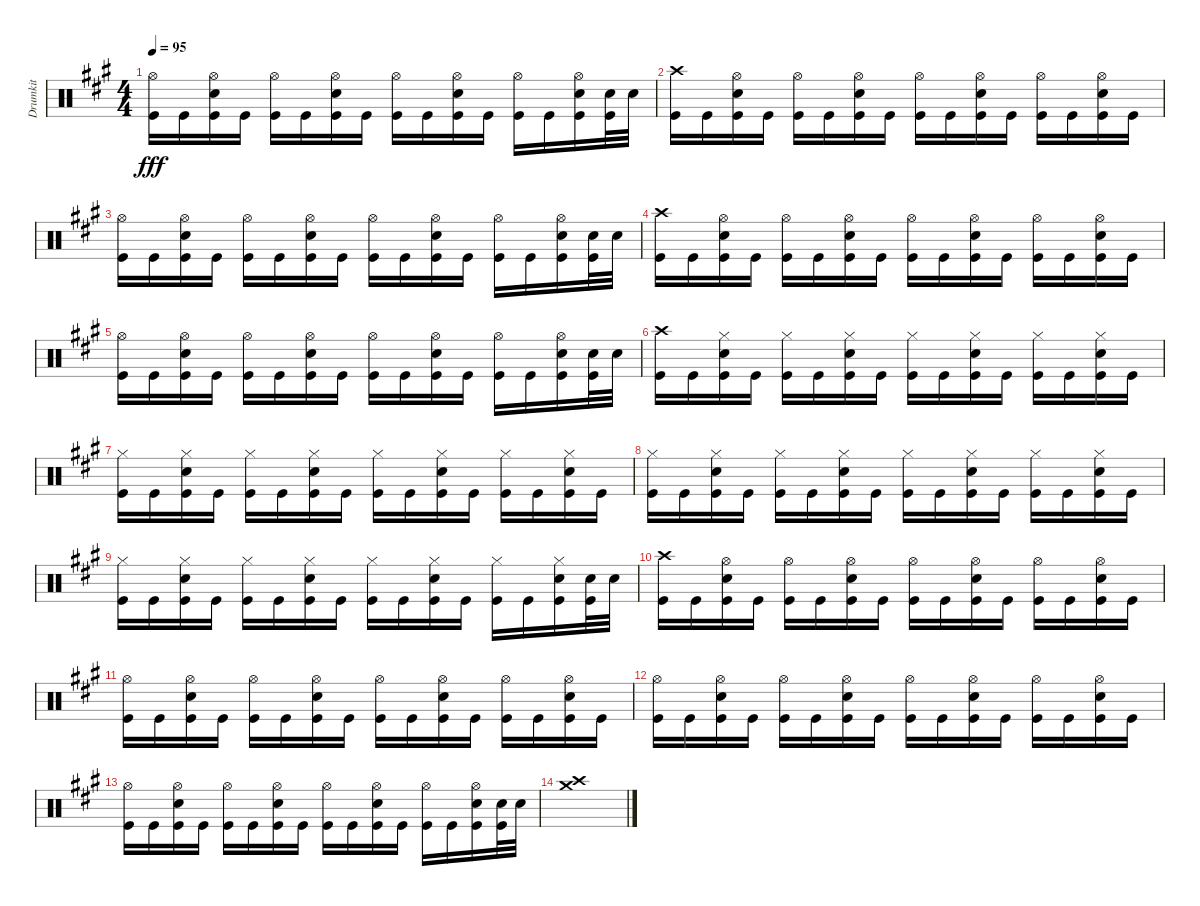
\track ("Drumkit" "Drumkit") {instrument percussion}
\staff {score}
\articulation defaults
\ts (4 4)
\tempo 95
\clef neutral
\ks a
("Hi-Hat (open)" "Kick (hit)").16{dy fff} "Kick (hit)".16 ("Hi-Hat (open)" "Snare (hit) 2" "Kick (hit)").16 "Kick (hit)".16 ("Hi-Hat (open)" "Kick (hit)").16 "Kick (hit)".16 ("Hi-Hat (open)" "Snare (hit) 2" "Kick (hit)").16 "Kick (hit)".16 ("Hi-Hat (open)" "Kick (hit)").16 "Kick (hit)".16 ("Hi-Hat (open)" "Snare (hit) 2" "Kick (hit)").16 "Kick (hit)".16 ("Hi-Hat (open)" "Kick (hit)").16 "Kick (hit)".16 ("Hi-Hat (open)" "Snare (hit) 2" "Kick (hit)").16 ("Snare (hit) 2" "Kick (hit)").32 "Snare (hit) 2".32 |
("Crash high (hit)" "Kick (hit)").16 "Kick (hit)".16 ("Hi-Hat (open)" "Snare (hit) 2" "Kick (hit)").16 "Kick (hit)".16 ("Hi-Hat (open)" "Kick (hit)").16 "Kick (hit)".16 ("Hi-Hat (open)" "Snare (hit) 2" "Kick (hit)").16 "Kick (hit)".16 ("Hi-Hat (open)" "Kick (hit)").16 "Kick (hit)".16 ("Hi-Hat (open)" "Snare (hit) 2" "Kick (hit)").16 "Kick (hit)".16 ("Hi-Hat (open)" "Kick (hit)").16 "Kick (hit)".16 ("Hi-Hat (open)" "Snare (hit) 2" "Kick (hit)").16 "Kick (hit)".16 |
("Hi-Hat (open)" "Kick (hit)").16 "Kick (hit)".16 ("Hi-Hat (open)" "Snare (hit) 2" "Kick (hit)").16 "Kick (hit)".16 ("Hi-Hat (open)" "Kick (hit)").16 "Kick (hit)".16 ("Hi-Hat (open)" "Snare (hit) 2" "Kick (hit)").16 "Kick (hit)".16 ("Hi-Hat (open)" "Kick (hit)").16 "Kick (hit)".16 ("Hi-Hat (open)" "Snare (hit) 2" "Kick (hit)").16 "Kick (hit)".16 ("Hi-Hat (open)" "Kick (hit)").16 "Kick (hit)".16 ("Hi-Hat (open)" "Snare (hit) 2" "Kick (hit)").16 ("Snare (hit) 2" "Kick (hit)").32 "Snare (hit) 2".32 |
("Crash high (hit)" "Kick (hit)").16 "Kick (hit)".16 ("Hi-Hat (open)" "Snare (hit) 2" "Kick (hit)").16 "Kick (hit)".16 ("Hi-Hat (open)" "Kick (hit)").16 "Kick (hit)".16 ("Hi-Hat (open)" "Snare (hit) 2" "Kick (hit)").16 "Kick (hit)".16 ("Hi-Hat (open)" "Kick (hit)").16 "Kick (hit)".16 ("Hi-Hat (open)" "Snare (hit) 2" "Kick (hit)").16 "Kick (hit)".16 ("Hi-Hat (open)" "Kick (hit)").16 "Kick (hit)".16 ("Hi-Hat (open)" "Snare (hit) 2" "Kick (hit)").16 "Kick (hit)".16 |
("Hi-Hat (open)" "Kick (hit)").16 "Kick (hit)".16 ("Hi-Hat (open)" "Snare (hit) 2" "Kick (hit)").16 "Kick (hit)".16 ("Hi-Hat (open)" "Kick (hit)").16 "Kick (hit)".16 ("Hi-Hat (open)" "Snare (hit) 2" "Kick (hit)").16 "Kick (hit)".16 ("Hi-Hat (open)" "Kick (hit)").16 "Kick (hit)".16 ("Hi-Hat (open)" "Snare (hit) 2" "Kick (hit)").16 "Kick (hit)".16 ("Hi-Hat (open)" "Kick (hit)").16 "Kick (hit)".16 ("Hi-Hat (open)" "Snare (hit) 2" "Kick (hit)").16 ("Snare (hit) 2" "Kick (hit)").32 "Snare (hit) 2".32 |
("Crash high (hit)" "Kick (hit)").16 "Kick (hit)".16 ("Hi-Hat (closed)" "Snare (hit) 2" "Kick (hit)").16 "Kick (hit)".16 ("Hi-Hat (closed)" "Kick (hit)").16 "Kick (hit)".16 ("Hi-Hat (closed)" "Snare (hit) 2" "Kick (hit)").16 "Kick (hit)".16 ("Hi-Hat (closed)" "Kick (hit)").16 "Kick (hit)".16 ("Hi-Hat (closed)" "Snare (hit) 2" "Kick (hit)").16 "Kick (hit)".16 ("Hi-Hat (closed)" "Kick (hit)").16 "Kick (hit)".16 ("Hi-Hat (closed)" "Snare (hit) 2" "Kick (hit)").16 "Kick (hit)".16 |
("Hi-Hat (closed)" "Kick (hit)").16 "Kick (hit)".16 ("Hi-Hat (closed)" "Snare (hit) 2" "Kick (hit)").16 "Kick (hit)".16 ("Hi-Hat (closed)" "Kick (hit)").16 "Kick (hit)".16 ("Hi-Hat (closed)" "Snare (hit) 2" "Kick (hit)").16 "Kick (hit)".16 ("Hi-Hat (closed)" "Kick (hit)").16 "Kick (hit)".16 ("Hi-Hat (closed)" "Snare (hit) 2" "Kick (hit)").16 "Kick (hit)".16 ("Hi-Hat (closed)" "Kick (hit)").16 "Kick (hit)".16 ("Hi-Hat (closed)" "Snare (hit) 2" "Kick (hit)").16 "Kick (hit)".16 |
("Hi-Hat (closed)" "Kick (hit)").16 "Kick (hit)".16 ("Hi-Hat (closed)" "Snare (hit) 2" "Kick (hit)").16 "Kick (hit)".16 ("Hi-Hat (closed)" "Kick (hit)").16 "Kick (hit)".16 ("Hi-Hat (closed)" "Snare (hit) 2" "Kick (hit)").16 "Kick (hit)".16 ("Hi-Hat (closed)" "Kick (hit)").16 "Kick (hit)".16 ("Hi-Hat (closed)" "Snare (hit) 2" "Kick (hit)").16 "Kick (hit)".16 ("Hi-Hat (closed)" "Kick (hit)").16 "Kick (hit)".16 ("Hi-Hat (closed)" "Snare (hit) 2" "Kick (hit)").16 "Kick (hit)".16 |
("Hi-Hat (closed)" "Kick (hit)").16 "Kick (hit)".16 ("Hi-Hat (closed)" "Snare (hit) 2" "Kick (hit)").16 "Kick (hit)".16 ("Hi-Hat (closed)" "Kick (hit)").16 "Kick (hit)".16 ("Hi-Hat (closed)" "Snare (hit) 2" "Kick (hit)").16 "Kick (hit)".16 ("Hi-Hat (closed)" "Kick (hit)").16 "Kick (hit)".16 ("Hi-Hat (closed)" "Snare (hit) 2" "Kick (hit)").16 "Kick (hit)".16 ("Hi-Hat (closed)" "Kick (hit)").16 "Kick (hit)".16 ("Hi-Hat (closed)" "Snare (hit) 2" "Kick (hit)").16 ("Snare (hit) 2" "Kick (hit)").32 "Snare (hit) 2".32 |
("Crash high (hit)" "Kick (hit)").16 "Kick (hit)".16 ("Hi-Hat (open)" "Snare (hit) 2" "Kick (hit)").16 "Kick (hit)".16 ("Hi-Hat (open)" "Kick (hit)").16 "Kick (hit)".16 ("Hi-Hat (open)" "Snare (hit) 2" "Kick (hit)").16 "Kick (hit)".16 ("Hi-Hat (open)" "Kick (hit)").16 "Kick (hit)".16 ("Hi-Hat (open)" "Snare (hit) 2" "Kick (hit)").16 "Kick (hit)".16 ("Hi-Hat (open)" "Kick (hit)").16 "Kick (hit)".16 ("Hi-Hat (open)" "Snare (hit) 2" "Kick (hit)").16 "Kick (hit)".16 |
("Hi-Hat (open)" "Kick (hit)").16 "Kick (hit)".16 ("Hi-Hat (open)" "Snare (hit) 2" "Kick (hit)").16 "Kick (hit)".16 ("Hi-Hat (open)" "Kick (hit)").16 "Kick (hit)".16 ("Hi-Hat (open)" "Snare (hit) 2" "Kick (hit)").16 "Kick (hit)".16 ("Hi-Hat (open)" "Kick (hit)").16 "Kick (hit)".16 ("Hi-Hat (open)" "Snare (hit) 2" "Kick (hit)").16 "Kick (hit)".16 ("Hi-Hat (open)" "Kick (hit)").16 "Kick (hit)".16 ("Hi-Hat (open)" "Snare (hit) 2" "Kick (hit)").16 "Kick (hit)".16 |
("Hi-Hat (open)" "Kick (hit)").16 "Kick (hit)".16 ("Hi-Hat (open)" "Snare (hit) 2" "Kick (hit)").16 "Kick (hit)".16 ("Hi-Hat (open)" "Kick (hit)").16 "Kick (hit)".16 ("Hi-Hat (open)" "Snare (hit) 2" "Kick (hit)").16 "Kick (hit)".16 ("Hi-Hat (open)" "Kick (hit)").16 "Kick (hit)".16 ("Hi-Hat (open)" "Snare (hit) 2" "Kick (hit)").16 "Kick (hit)".16 ("Hi-Hat (open)" "Kick (hit)").16 "Kick (hit)".16 ("Hi-Hat (open)" "Snare (hit) 2" "Kick (hit)").16 "Kick (hit)".16 |
("Hi-Hat (open)" "Kick (hit)").16 "Kick (hit)".16 ("Hi-Hat (open)" "Snare (hit) 2" "Kick (hit)").16 "Kick (hit)".16 ("Hi-Hat (open)" "Kick (hit)").16 "Kick (hit)".16 ("Hi-Hat (open)" "Snare (hit) 2" "Kick (hit)").16 "Kick (hit)".16 ("Hi-Hat (open)" "Kick (hit)").16 "Kick (hit)".16 ("Hi-Hat (open)" "Snare (hit) 2" "Kick (hit)").16 "Kick (hit)".16 ("Hi-Hat (open)" "Kick (hit)").16 "Kick (hit)".16 ("Hi-Hat (open)" "Snare (hit) 2" "Kick (hit)").16 ("Snare (hit) 2" "Kick (hit)").32 "Snare (hit) 2".32 |
("Crash medium (hit)" "Crash high (hit)").1
